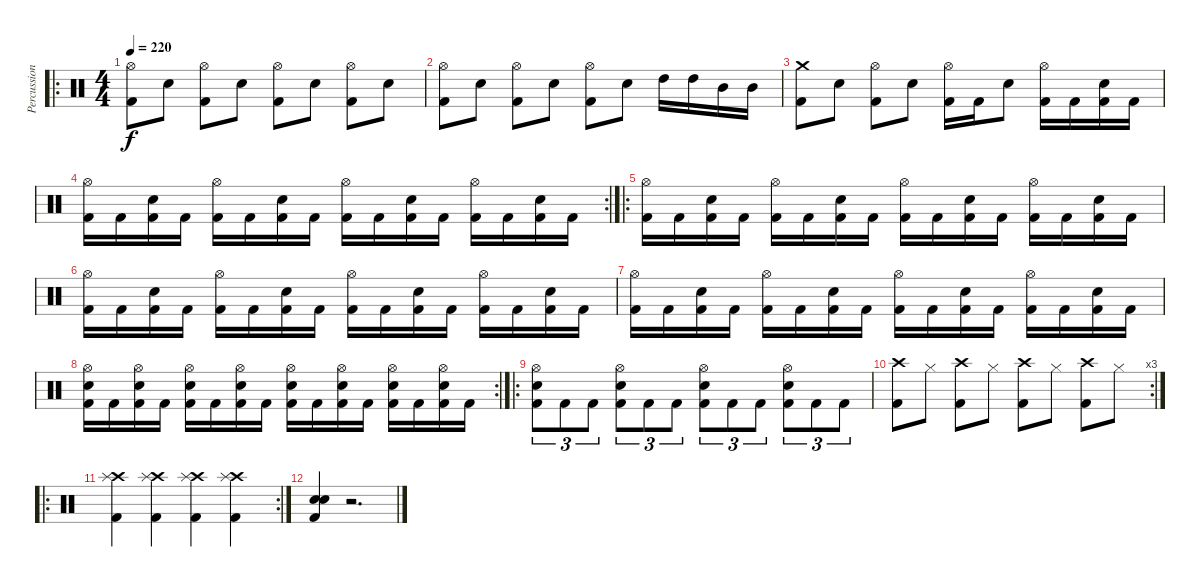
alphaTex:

\track ("Percussions" "Percussion") {instrument percussion}
\staff {score}
\articulation defaults
\ro
\ts (4 4)
\tempo 220
\clef neutral
\ks c
("Hi-Hat (open)" "Kick (hit) 2").8{dy f} "Snare (hit) 2".8 ("Hi-Hat (open)" "Kick (hit) 2").8 "Snare (hit) 2".8 ("Hi-Hat (open)" "Kick (hit) 2").8 "Snare (hit) 2".8 ("Hi-Hat (open)" "Kick (hit) 2").8 "Snare (hit) 2".8 |
("Hi-Hat (open)" "Kick (hit) 2").8 "Snare (hit) 2".8 ("Hi-Hat (open)" "Kick (hit) 2").8 "Snare (hit) 2".8 ("Hi-Hat (open)" "Kick (hit) 2").8 "Snare (hit) 2".8 "High Tom (hit)".16 "High Tom (hit)".16 "Mid Tom (hit)".16 "Mid Tom (hit)".16 |
("Crash medium (hit)" "Kick (hit) 2").8 "Snare (hit) 2".8 ("Hi-Hat (open)" "Kick (hit) 2").8 "Snare (hit) 2".8 ("Hi-Hat (open)" "Kick (hit) 2").16 "Kick (hit) 2".16 "Snare (hit) 2".8 ("Hi-Hat (open)" "Kick (hit) 2").16 "Kick (hit) 2".16 ("Snare (hit) 2" "Kick (hit) 2").16 "Kick (hit) 2".16 |
\rc 2
("Hi-Hat (open)" "Kick (hit) 2").16 "Kick (hit) 2".16 ("Snare (hit) 2" "Kick (hit) 2").16 "Kick (hit) 2".16 ("Hi-Hat (open)" "Kick (hit) 2").16 "Kick (hit) 2".16 ("Snare (hit) 2" "Kick (hit) 2").16 "Kick (hit) 2".16 ("Hi-Hat (open)" "Kick (hit) 2").16 "Kick (hit) 2".16 ("Snare (hit) 2" "Kick (hit) 2").16 "Kick (hit) 2".16 ("Hi-Hat (open)" "Kick (hit) 2").16 "Kick (hit) 2".16 ("Snare (hit) 2" "Kick (hit) 2").16 "Kick (hit) 2".16 |
\ro
("Hi-Hat (open)" "Kick (hit) 2").16 "Kick (hit) 2".16 ("Snare (hit) 2" "Kick (hit) 2").16 "Kick (hit) 2".16 ("Hi-Hat (open)" "Kick (hit) 2").16 "Kick (hit) 2".16 ("Snare (hit) 2" "Kick (hit) 2").16 "Kick (hit) 2".16 ("Hi-Hat (open)" "Kick (hit) 2").16 "Kick (hit) 2".16 ("Snare (hit) 2" "Kick (hit) 2").16 "Kick (hit) 2".16 ("Hi-Hat (open)" "Kick (hit) 2").16 "Kick (hit) 2".16 ("Snare (hit) 2" "Kick (hit) 2").16 "Kick (hit) 2".16 |
("Hi-Hat (open)" "Kick (hit) 2").16 "Kick (hit) 2".16 ("Snare (hit) 2" "Kick (hit) 2").16 "Kick (hit) 2".16 ("Hi-Hat (open)" "Kick (hit) 2").16 "Kick (hit) 2".16 ("Snare (hit) 2" "Kick (hit) 2").16 "Kick (hit) 2".16 ("Hi-Hat (open)" "Kick (hit) 2").16 "Kick (hit) 2".16 ("Snare (hit) 2" "Kick (hit) 2").16 "Kick (hit) 2".16 ("Hi-Hat (open)" "Kick (hit) 2").16 "Kick (hit) 2".16 ("Snare (hit) 2" "Kick (hit) 2").16 "Kick (hit) 2".16 |
("Hi-Hat (open)" "Kick (hit) 2").16 "Kick (hit) 2".16 ("Snare (hit) 2" "Kick (hit) 2").16 "Kick (hit) 2".16 ("Hi-Hat (open)" "Kick (hit) 2").16 "Kick (hit) 2".16 ("Snare (hit) 2" "Kick (hit) 2").16 "Kick (hit) 2".16 ("Hi-Hat (open)" "Kick (hit) 2").16 "Kick (hit) 2".16 ("Snare (hit) 2" "Kick (hit) 2").16 "Kick (hit) 2".16 ("Hi-Hat (open)" "Kick (hit) 2").16 "Kick (hit) 2".16 ("Snare (hit) 2" "Kick (hit) 2").16 "Kick (hit) 2".16 |
\rc 2
("Hi-Hat (open)" "Snare (hit) 2" "Kick (hit) 2").16 "Kick (hit) 2".16 ("Hi-Hat (open)" "Snare (hit) 2" "Kick (hit) 2").16 "Kick (hit) 2".16 ("Hi-Hat (open)" "Snare (hit) 2" "Kick (hit) 2").16 "Kick (hit) 2".16 ("Hi-Hat (open)" "Snare (hit) 2" "Kick (hit) 2").16 "Kick (hit) 2".16 ("Hi-Hat (open)" "Snare (hit) 2" "Kick (hit) 2").16 "Kick (hit) 2".16 ("Hi-Hat (open)" "Snare (hit) 2" "Kick (hit) 2").16 "Kick (hit) 2".16 ("Hi-Hat (open)" "Snare (hit) 2" "Kick (hit) 2").16 "Kick (hit) 2".16 ("Hi-Hat (open)" "Snare (hit) 2" "Kick (hit) 2").16 "Kick (hit) 2".16 |
\ro
("Hi-Hat (open)" "Snare (hit) 2" "Kick (hit) 2").8{tu (3 2)} "Kick (hit) 2".8{tu (3 2)} "Kick (hit) 2".8{tu (3 2)} ("Hi-Hat (open)" "Snare (hit) 2" "Kick (hit) 2").8{tu (3 2)} "Kick (hit) 2".8{tu (3 2)} "Kick (hit) 2".8{tu (3 2)} ("Hi-Hat (open)" "Snare (hit) 2" "Kick (hit) 2").8{tu (3 2)} "Kick (hit) 2".8{tu (3 2)} "Kick (hit) 2".8{tu (3 2)} ("Hi-Hat (open)" "Snare (hit) 2" "Kick (hit) 2").8{tu (3 2)} "Kick (hit) 2".8{tu (3 2)} "Kick (hit) 2".8{tu (3 2)} |
\rc 3
("Crash high (hit)" "Kick (hit) 2").8 "Hi-Hat (closed)".8 ("Crash high (hit)" "Kick (hit) 2").8 "Hi-Hat (closed)".8 ("Crash high (hit)" "Kick (hit) 2").8 "Hi-Hat (closed)".8 ("Crash high (hit)" "Kick (hit) 2").8 "Hi-Hat (closed)".8 |
\ro
\rc 2
("Crash high (hit)" "Splash (hit)" "Kick (hit) 2").4 ("Crash high (hit)" "Splash (hit)" "Kick (hit) 2").4 ("Crash high (hit)" "Splash (hit)" "Kick (hit) 2").4 ("Crash high (hit)" "Splash (hit)" "Kick (hit) 2").4 |
("Electric Snare (hit)" "Snare (hit) 2" "Kick (hit) 2").4 r.2{d}
